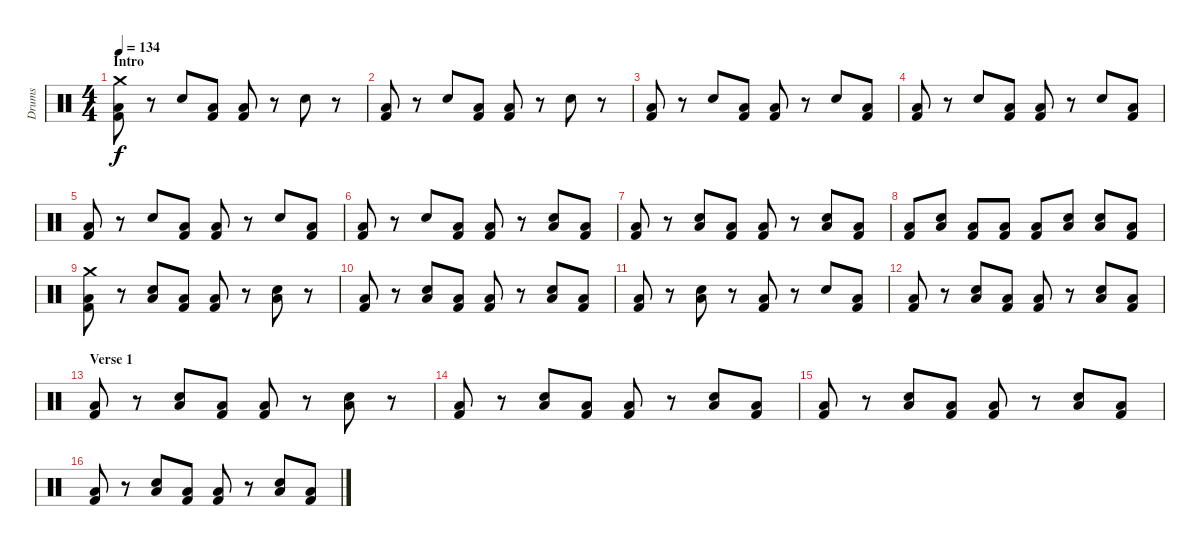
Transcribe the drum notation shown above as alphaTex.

\track ("Drums" "Drums") {instrument percussion}
\staff {score}
\articulation defaults
\ts (4 4)
\section ("" "Intro")
\tempo 134
\clef neutral
\ks c
("Crash medium (hit)" "Kick (hit) 2" "Low Floor Tom (hit)").8{dy f} r.8 "Snare (hit) 2".8 ("Kick (hit) 2" "Low Floor Tom (hit)").8 ("Kick (hit) 2" "Low Floor Tom (hit)").8 r.8 "Snare (hit) 2".8 r.8 |
("Kick (hit) 2" "Low Floor Tom (hit)").8 r.8 "Snare (hit) 2".8 ("Kick (hit) 2" "Low Floor Tom (hit)").8 ("Kick (hit) 2" "Low Floor Tom (hit)").8 r.8 "Snare (hit) 2".8 r.8 |
("Kick (hit) 2" "Low Floor Tom (hit)").8 r.8 "Snare (hit) 2".8 ("Kick (hit) 2" "Low Floor Tom (hit)").8 ("Kick (hit) 2" "Low Floor Tom (hit)").8 r.8 "Snare (hit) 2".8 ("Kick (hit) 2" "Low Floor Tom (hit)").8 |
("Kick (hit) 2" "Low Floor Tom (hit)").8 r.8 "Snare (hit) 2".8 ("Kick (hit) 2" "Low Floor Tom (hit)").8 ("Kick (hit) 2" "Low Floor Tom (hit)").8 r.8 "Snare (hit) 2".8 ("Kick (hit) 2" "Low Floor Tom (hit)").8 |
("Kick (hit) 2" "Low Floor Tom (hit)").8 r.8 "Snare (hit) 2".8 ("Kick (hit) 2" "Low Floor Tom (hit)").8 ("Kick (hit) 2" "Low Floor Tom (hit)").8 r.8 "Snare (hit) 2".8 ("Kick (hit) 2" "Low Floor Tom (hit)").8 |
("Kick (hit) 2" "Low Floor Tom (hit)").8 r.8 "Snare (hit) 2".8 ("Kick (hit) 2" "Low Floor Tom (hit)").8 ("Kick (hit) 2" "Low Floor Tom (hit)").8 r.8 ("Snare (hit) 2" "Low Floor Tom (hit)").8 ("Kick (hit) 2" "Low Floor Tom (hit)").8 |
("Kick (hit) 2" "Low Floor Tom (hit)").8 r.8 ("Snare (hit) 2" "Low Floor Tom (hit)").8 ("Kick (hit) 2" "Low Floor Tom (hit)").8 ("Kick (hit) 2" "Low Floor Tom (hit)").8 r.8 ("Snare (hit) 2" "Low Floor Tom (hit)").8 ("Kick (hit) 2" "Low Floor Tom (hit)").8 |
("Kick (hit) 2" "Low Floor Tom (hit)").8 ("Snare (hit) 2" "Low Floor Tom (hit)").8 ("Kick (hit) 2" "Low Floor Tom (hit)").8 ("Kick (hit) 2" "Low Floor Tom (hit)").8 ("Kick (hit) 2" "Low Floor Tom (hit)").8 ("Snare (hit) 2" "Low Floor Tom (hit)").8 ("Snare (hit) 2" "Low Floor Tom (hit)").8 ("Kick (hit) 2" "Low Floor Tom (hit)").8 |
("Crash medium (hit)" "Kick (hit) 2" "Low Floor Tom (hit)").8 r.8 ("Snare (hit) 2" "Low Floor Tom (hit)").8 ("Kick (hit) 2" "Low Floor Tom (hit)").8 ("Kick (hit) 2" "Low Floor Tom (hit)").8 r.8 ("Snare (hit) 2" "Low Floor Tom (hit)").8 r.8 |
("Kick (hit) 2" "Low Floor Tom (hit)").8 r.8 ("Snare (hit) 2" "Low Floor Tom (hit)").8 ("Kick (hit) 2" "Low Floor Tom (hit)").8 ("Kick (hit) 2" "Low Floor Tom (hit)").8 r.8 ("Snare (hit) 2" "Low Floor Tom (hit)").8 ("Kick (hit) 2" "Low Floor Tom (hit)").8 |
("Kick (hit) 2" "Low Floor Tom (hit)").8 r.8 ("Snare (hit) 2" "Low Floor Tom (hit)").8 r.8 ("Kick (hit) 2" "Low Floor Tom (hit)").8 r.8 "Snare (hit) 2".8 ("Kick (hit) 2" "Low Floor Tom (hit)").8 |
("Kick (hit) 2" "Low Floor Tom (hit)").8 r.8 ("Snare (hit) 2" "Low Floor Tom (hit)").8 ("Kick (hit) 2" "Low Floor Tom (hit)").8 ("Kick (hit) 2" "Low Floor Tom (hit)").8 r.8 ("Snare (hit) 2" "Low Floor Tom (hit)").8 ("Kick (hit) 2" "Low Floor Tom (hit)").8 |
\section ("" "Verse 1")
("Kick (hit) 2" "Low Floor Tom (hit)").8 r.8 ("Snare (hit) 2" "Low Floor Tom (hit)").8 ("Kick (hit) 2" "Low Floor Tom (hit)").8 ("Kick (hit) 2" "Low Floor Tom (hit)").8 r.8 ("Snare (hit) 2" "Low Floor Tom (hit)").8 r.8 |
("Kick (hit) 2" "Low Floor Tom (hit)").8 r.8 ("Snare (hit) 2" "Low Floor Tom (hit)").8 ("Kick (hit) 2" "Low Floor Tom (hit)").8 ("Kick (hit) 2" "Low Floor Tom (hit)").8 r.8 ("Snare (hit) 2" "Low Floor Tom (hit)").8 ("Kick (hit) 2" "Low Floor Tom (hit)").8 |
("Kick (hit) 2" "Low Floor Tom (hit)").8 r.8 ("Snare (hit) 2" "Low Floor Tom (hit)").8 ("Kick (hit) 2" "Low Floor Tom (hit)").8 ("Kick (hit) 2" "Low Floor Tom (hit)").8 r.8 ("Snare (hit) 2" "Low Floor Tom (hit)").8 ("Kick (hit) 2" "Low Floor Tom (hit)").8 |
("Kick (hit) 2" "Low Floor Tom (hit)").8 r.8 ("Snare (hit) 2" "Low Floor Tom (hit)").8 ("Kick (hit) 2" "Low Floor Tom (hit)").8 ("Kick (hit) 2" "Low Floor Tom (hit)").8 r.8 ("Snare (hit) 2" "Low Floor Tom (hit)").8 ("Kick (hit) 2" "Low Floor Tom (hit)").8
